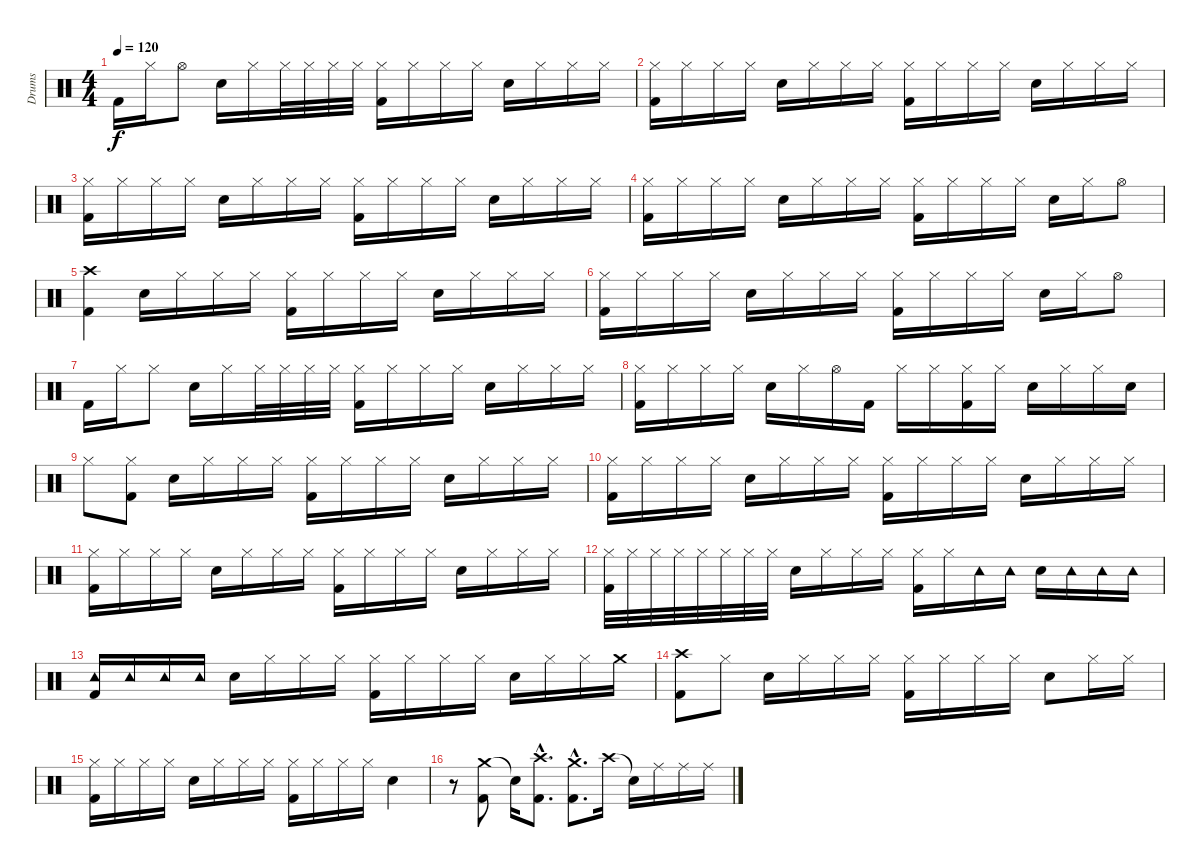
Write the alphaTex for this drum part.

\track ("Drums" "Drums") {instrument percussion}
\staff {score}
\articulation defaults
\ts (4 4)
\tempo 120
\clef neutral
\ks c "Kick (hit) 2".16{dy f} "Hi-Hat (closed)".16 "Hi-Hat (open)".8 "Electric Snare (hit)".16 "Hi-Hat (closed)".16 "Hi-Hat (closed)".32 "Hi-Hat (closed)".32 "Hi-Hat (closed)".32 "Hi-Hat (closed)".32
("Hi-Hat (closed)" "Kick (hit) 2").16 "Hi-Hat (closed)".16 "Hi-Hat (closed)".16 "Hi-Hat (closed)".16 "Electric Snare (hit)".16 "Hi-Hat (closed)".16 "Hi-Hat (closed)".16 "Hi-Hat (closed)".16 |
("Hi-Hat (closed)" "Kick (hit) 2").16 "Hi-Hat (closed)".16 "Hi-Hat (closed)".16 "Hi-Hat (closed)".16 "Electric Snare (hit)".16 "Hi-Hat (closed)".16 "Hi-Hat (closed)".16 "Hi-Hat (closed)".16 ("Hi-Hat (closed)" "Kick (hit) 2").16 "Hi-Hat (closed)".16 "Hi-Hat (closed)".16 "Hi-Hat (closed)".16 "Electric Snare (hit)".16 "Hi-Hat (closed)".16 "Hi-Hat (closed)".16 "Hi-Hat (closed)".16 |
("Hi-Hat (closed)" "Kick (hit) 2").16 "Hi-Hat (closed)".16 "Hi-Hat (closed)".16 "Hi-Hat (closed)".16 "Electric Snare (hit)".16 "Hi-Hat (closed)".16 "Hi-Hat (closed)".16 "Hi-Hat (closed)".16 ("Hi-Hat (closed)" "Kick (hit) 2").16 "Hi-Hat (closed)".16 "Hi-Hat (closed)".16 "Hi-Hat (closed)".16 "Electric Snare (hit)".16 "Hi-Hat (closed)".16 "Hi-Hat (closed)".16 "Hi-Hat (closed)".16 |
("Hi-Hat (closed)" "Kick (hit) 2").16 "Hi-Hat (closed)".16 "Hi-Hat (closed)".16 "Hi-Hat (closed)".16 "Electric Snare (hit)".16 "Hi-Hat (closed)".16 "Hi-Hat (closed)".16 "Hi-Hat (closed)".16 ("Hi-Hat (closed)" "Kick (hit) 2").16 "Hi-Hat (closed)".16 "Hi-Hat (closed)".16 "Hi-Hat (closed)".16 "Electric Snare (hit)".16 "Hi-Hat (closed)".16 "Hi-Hat (open)".8 |
("Crash high (hit)" "Kick (hit) 2").4 "Electric Snare (hit)".16 "Hi-Hat (closed)".16 "Hi-Hat (closed)".16 "Hi-Hat (closed)".16 ("Hi-Hat (closed)" "Kick (hit) 2").16 "Hi-Hat (closed)".16 "Hi-Hat (closed)".16 "Hi-Hat (closed)".16 "Electric Snare (hit)".16 "Hi-Hat (closed)".16 "Hi-Hat (closed)".16 "Hi-Hat (closed)".16 |
("Hi-Hat (closed)" "Kick (hit) 2").16 "Hi-Hat (closed)".16 "Hi-Hat (closed)".16 "Hi-Hat (closed)".16 "Electric Snare (hit)".16 "Hi-Hat (closed)".16 "Hi-Hat (closed)".16 "Hi-Hat (closed)".16 ("Hi-Hat (closed)" "Kick (hit) 2").16 "Hi-Hat (closed)".16 "Hi-Hat (closed)".16 "Hi-Hat (closed)".16 "Electric Snare (hit)".16 "Hi-Hat (closed)".16 "Hi-Hat (open)".8 |
"Kick (hit) 2".16 "Hi-Hat (closed)".16 "Hi-Hat (closed)".8 "Electric Snare (hit)".16 "Hi-Hat (closed)".16 "Hi-Hat (closed)".32 "Hi-Hat (closed)".32 "Hi-Hat (closed)".32 "Hi-Hat (closed)".32 ("Hi-Hat (closed)" "Kick (hit) 2").16 "Hi-Hat (closed)".16 "Hi-Hat (closed)".16 "Hi-Hat (closed)".16 "Electric Snare (hit)".16 "Hi-Hat (closed)".16 "Hi-Hat (closed)".16 "Hi-Hat (closed)".16 |
("Hi-Hat (closed)" "Kick (hit) 2").16 "Hi-Hat (closed)".16 "Hi-Hat (closed)".16 "Hi-Hat (closed)".16 "Electric Snare (hit)".16 "Hi-Hat (closed)".16 "Hi-Hat (open)".16 "Kick (hit) 2".16 "Hi-Hat (closed)".16 "Hi-Hat (closed)".16 ("Hi-Hat (closed)" "Kick (hit) 2").16 "Hi-Hat (closed)".16 "Electric Snare (hit)".16 "Hi-Hat (closed)".16 "Hi-Hat (closed)".16 "Electric Snare (hit)".16 |
"Hi-Hat (closed)".8 ("Hi-Hat (closed)" "Kick (hit) 2").8 "Electric Snare (hit)".16 "Hi-Hat (closed)".16 "Hi-Hat (closed)".16 "Hi-Hat (closed)".16 ("Hi-Hat (closed)" "Kick (hit) 2").16 "Hi-Hat (closed)".16 "Hi-Hat (closed)".16 "Hi-Hat (closed)".16 "Electric Snare (hit)".16 "Hi-Hat (closed)".16 "Hi-Hat (closed)".16 "Hi-Hat (closed)".16 |
("Hi-Hat (closed)" "Kick (hit) 2").16 "Hi-Hat (closed)".16 "Hi-Hat (closed)".16 "Hi-Hat (closed)".16 "Electric Snare (hit)".16 "Hi-Hat (closed)".16 "Hi-Hat (closed)".16 "Hi-Hat (closed)".16 ("Hi-Hat (closed)" "Kick (hit) 2").16 "Hi-Hat (closed)".16 "Hi-Hat (closed)".16 "Hi-Hat (closed)".16 "Electric Snare (hit)".16 "Hi-Hat (closed)".16 "Hi-Hat (closed)".16 "Hi-Hat (closed)".16 |
("Hi-Hat (closed)" "Kick (hit) 2").16 "Hi-Hat (closed)".16 "Hi-Hat (closed)".16 "Hi-Hat (closed)".16 "Electric Snare (hit)".16 "Hi-Hat (closed)".16 "Hi-Hat (closed)".16 "Hi-Hat (closed)".16 ("Hi-Hat (closed)" "Kick (hit) 2").16 "Hi-Hat (closed)".16 "Hi-Hat (closed)".16 "Hi-Hat (closed)".16 "Electric Snare (hit)".16 "Hi-Hat (closed)".16 "Hi-Hat (closed)".16 "Hi-Hat (closed)".16 |
("Hi-Hat (closed)" "Kick (hit) 2").32 "Hi-Hat (closed)".32 "Hi-Hat (closed)".32 "Hi-Hat (closed)".32 "Hi-Hat (closed)".32 "Hi-Hat (closed)".32 "Hi-Hat (closed)".32 "Hi-Hat (closed)".32 "Electric Snare (hit)".16 "Hi-Hat (closed)".16 "Hi-Hat (closed)".16 "Hi-Hat (closed)".16 ("Hi-Hat (closed)" "Kick (hit) 2").16 "Hi-Hat (closed)".16 "Tambourine (hit)".16 "Tambourine (hit)".16 "Electric Snare (hit)".16 "Tambourine (hit)".16 "Tambourine (hit)".16 "Tambourine (hit)".16 |
("Tambourine (hit)" "Kick (hit) 2").16 "Tambourine (hit)".16 "Tambourine (hit)".16 "Tambourine (hit)".16 "Electric Snare (hit)".16 "Hi-Hat (closed)".16 "Hi-Hat (closed)".16 "Hi-Hat (closed)".16 ("Hi-Hat (closed)" "Kick (hit) 2").16 "Hi-Hat (closed)".16 "Hi-Hat (closed)".16 "Hi-Hat (closed)".16 "Electric Snare (hit)".16 "Hi-Hat (closed)".16 "Hi-Hat (closed)".16 "Crash medium (hit)".16 |
("Crash high (hit)" "Kick (hit) 2").8 "Hi-Hat (closed)".8 "Electric Snare (hit)".16 "Hi-Hat (closed)".16 "Hi-Hat (closed)".16 "Hi-Hat (closed)".16 ("Hi-Hat (closed)" "Kick (hit) 2").16 "Hi-Hat (closed)".16 "Hi-Hat (closed)".16 "Hi-Hat (closed)".16 "Electric Snare (hit)".8 "Hi-Hat (closed)".16 "Hi-Hat (closed)".16 |
("Hi-Hat (closed)" "Kick (hit) 2").16 "Hi-Hat (closed)".16 "Hi-Hat (closed)".16 "Hi-Hat (closed)".16 "Electric Snare (hit)".16 "Hi-Hat (closed)".16 "Hi-Hat (closed)".16 "Hi-Hat (closed)".16 ("Hi-Hat (closed)" "Kick (hit) 2").16 "Hi-Hat (closed)".16 "Hi-Hat (closed)".16 "Hi-Hat (closed)".16 "Electric Snare (hit)".4 |
r.8 ("Crash medium (hit)" "Kick (hit) 2").8 "Snare (hit)"{t}.16 ("Crash high (hit)"{hac} "Kick (hit) 2"{hac}).8{d} ("Crash medium (hit)"{hac} "Kick (hit) 2"{hac}).8{d} "Crash high (hit)".16 "Snare (hit)"{t}.16 "Ride (middle)".16 "Ride (middle)".16 "Ride (middle)".16
